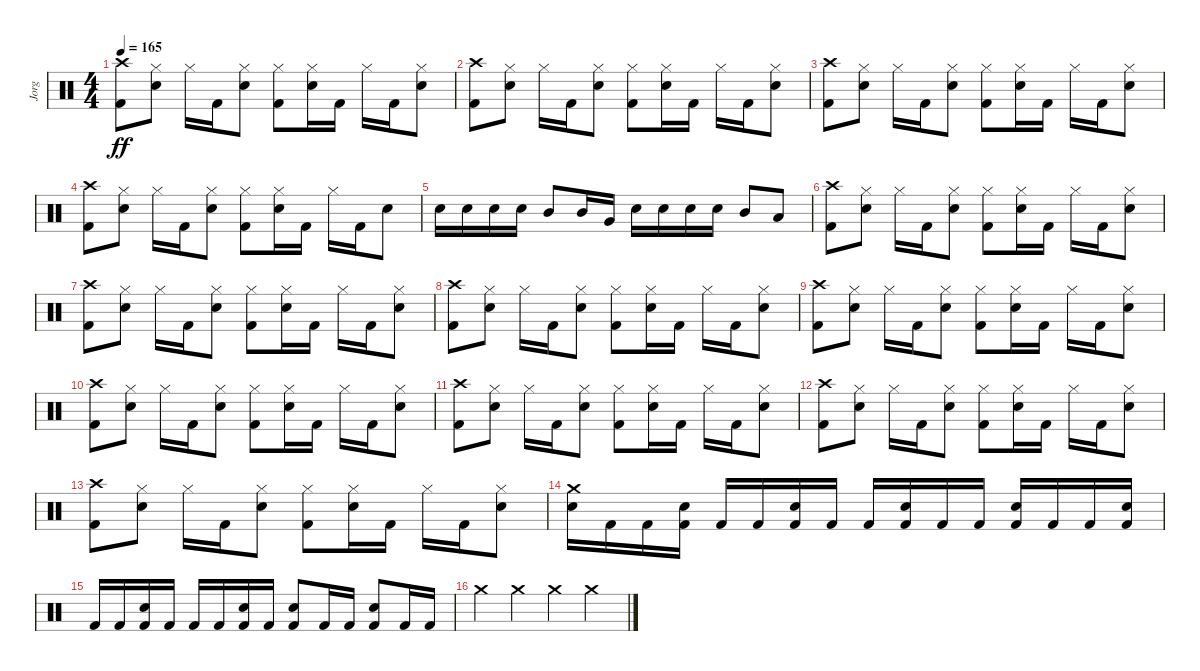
\track ("Jorg" "Jorg") {instrument percussion}
\staff {score}
\articulation defaults
\ts (4 4)
\tempo 165
\clef neutral
\ks c
("Kick (hit) 2" "Crash high (hit)").8{dy ff} ("Snare (hit) 2" "Hi-Hat (closed)").8 "Hi-Hat (closed)".16 "Kick (hit) 2".16 ("Snare (hit) 2" "Hi-Hat (closed)").8 ("Kick (hit) 2" "Hi-Hat (closed)").8 ("Snare (hit) 2" "Hi-Hat (closed)").16 "Kick (hit) 2".16 "Hi-Hat (closed)".16 "Kick (hit) 2".16 ("Snare (hit) 2" "Hi-Hat (closed)").8 |
("Kick (hit) 2" "Crash high (hit)").8 ("Snare (hit) 2" "Hi-Hat (closed)").8 "Hi-Hat (closed)".16 "Kick (hit) 2".16 ("Snare (hit) 2" "Hi-Hat (closed)").8 ("Kick (hit) 2" "Hi-Hat (closed)").8 ("Snare (hit) 2" "Hi-Hat (closed)").16 "Kick (hit) 2".16 "Hi-Hat (closed)".16 "Kick (hit) 2".16 ("Snare (hit) 2" "Hi-Hat (closed)").8 |
("Kick (hit) 2" "Crash high (hit)").8 ("Snare (hit) 2" "Hi-Hat (closed)").8 "Hi-Hat (closed)".16 "Kick (hit) 2".16 ("Snare (hit) 2" "Hi-Hat (closed)").8 ("Kick (hit) 2" "Hi-Hat (closed)").8 ("Snare (hit) 2" "Hi-Hat (closed)").16 "Kick (hit) 2".16 "Hi-Hat (closed)".16 "Kick (hit) 2".16 ("Snare (hit) 2" "Hi-Hat (closed)").8 |
("Kick (hit) 2" "Crash high (hit)").8 ("Snare (hit) 2" "Hi-Hat (closed)").8 "Hi-Hat (closed)".16 "Kick (hit) 2".16 ("Snare (hit) 2" "Hi-Hat (closed)").8 ("Kick (hit) 2" "Hi-Hat (closed)").8 ("Snare (hit) 2" "Hi-Hat (closed)").16 "Kick (hit) 2".16 "Hi-Hat (closed)".16 "Kick (hit) 2".16 "Snare (hit) 2".8 |
"Electric Snare (hit)".16 "Electric Snare (hit)".16 "Electric Snare (hit)".16 "Electric Snare (hit)".16 "Mid Tom (hit)".8 "Mid Tom (hit)".16 "Very Low Tom (hit)".16 "Electric Snare (hit)".16 "Electric Snare (hit)".16 "Electric Snare (hit)".16 "Electric Snare (hit)".16 "Mid Tom (hit)".8 "Low Tom (hit)".8 |
("Kick (hit) 2" "Crash high (hit)").8 ("Snare (hit) 2" "Hi-Hat (closed)").8 "Hi-Hat (closed)".16 "Kick (hit) 2".16 ("Snare (hit) 2" "Hi-Hat (closed)").8 ("Kick (hit) 2" "Hi-Hat (closed)").8 ("Snare (hit) 2" "Hi-Hat (closed)").16 "Kick (hit) 2".16 "Hi-Hat (closed)".16 "Kick (hit) 2".16 ("Snare (hit) 2" "Hi-Hat (closed)").8 |
("Kick (hit) 2" "Crash high (hit)").8 ("Snare (hit) 2" "Hi-Hat (closed)").8 "Hi-Hat (closed)".16 "Kick (hit) 2".16 ("Snare (hit) 2" "Hi-Hat (closed)").8 ("Kick (hit) 2" "Hi-Hat (closed)").8 ("Snare (hit) 2" "Hi-Hat (closed)").16 "Kick (hit) 2".16 "Hi-Hat (closed)".16 "Kick (hit) 2".16 ("Snare (hit) 2" "Hi-Hat (closed)").8 |
("Kick (hit) 2" "Crash high (hit)").8 ("Snare (hit) 2" "Hi-Hat (closed)").8 "Hi-Hat (closed)".16 "Kick (hit) 2".16 ("Snare (hit) 2" "Hi-Hat (closed)").8 ("Kick (hit) 2" "Hi-Hat (closed)").8 ("Snare (hit) 2" "Hi-Hat (closed)").16 "Kick (hit) 2".16 "Hi-Hat (closed)".16 "Kick (hit) 2".16 ("Snare (hit) 2" "Hi-Hat (closed)").8 |
("Kick (hit) 2" "Crash high (hit)").8 ("Snare (hit) 2" "Hi-Hat (closed)").8 "Hi-Hat (closed)".16 "Kick (hit) 2".16 ("Snare (hit) 2" "Hi-Hat (closed)").8 ("Kick (hit) 2" "Hi-Hat (closed)").8 ("Snare (hit) 2" "Hi-Hat (closed)").16 "Kick (hit) 2".16 "Hi-Hat (closed)".16 "Kick (hit) 2".16 ("Snare (hit) 2" "Hi-Hat (closed)").8 |
("Kick (hit) 2" "Crash high (hit)").8 ("Snare (hit) 2" "Hi-Hat (closed)").8 "Hi-Hat (closed)".16 "Kick (hit) 2".16 ("Snare (hit) 2" "Hi-Hat (closed)").8 ("Kick (hit) 2" "Hi-Hat (closed)").8 ("Snare (hit) 2" "Hi-Hat (closed)").16 "Kick (hit) 2".16 "Hi-Hat (closed)".16 "Kick (hit) 2".16 ("Snare (hit) 2" "Hi-Hat (closed)").8 |
("Kick (hit) 2" "Crash high (hit)").8 ("Snare (hit) 2" "Hi-Hat (closed)").8 "Hi-Hat (closed)".16 "Kick (hit) 2".16 ("Snare (hit) 2" "Hi-Hat (closed)").8 ("Kick (hit) 2" "Hi-Hat (closed)").8 ("Snare (hit) 2" "Hi-Hat (closed)").16 "Kick (hit) 2".16 "Hi-Hat (closed)".16 "Kick (hit) 2".16 ("Snare (hit) 2" "Hi-Hat (closed)").8 |
("Kick (hit) 2" "Crash high (hit)").8 ("Snare (hit) 2" "Hi-Hat (closed)").8 "Hi-Hat (closed)".16 "Kick (hit) 2".16 ("Snare (hit) 2" "Hi-Hat (closed)").8 ("Kick (hit) 2" "Hi-Hat (closed)").8 ("Snare (hit) 2" "Hi-Hat (closed)").16 "Kick (hit) 2".16 "Hi-Hat (closed)".16 "Kick (hit) 2".16 ("Snare (hit) 2" "Hi-Hat (closed)").8 |
("Kick (hit) 2" "Crash high (hit)").8 ("Snare (hit) 2" "Hi-Hat (closed)").8 "Hi-Hat (closed)".16 "Kick (hit) 2".16 ("Snare (hit) 2" "Hi-Hat (closed)").8 ("Kick (hit) 2" "Hi-Hat (closed)").8 ("Snare (hit) 2" "Hi-Hat (closed)").16 "Kick (hit) 2".16 "Hi-Hat (closed)".16 "Kick (hit) 2".16 ("Snare (hit) 2" "Hi-Hat (closed)").8 |
("Crash medium (hit)" "Electric Snare (hit)").16 "Kick (hit) 2".16 "Kick (hit) 2".16 ("Electric Snare (hit)" "Kick (hit) 2").16 "Kick (hit) 2".16 "Kick (hit) 2".16 ("Electric Snare (hit)" "Kick (hit) 2").16 "Kick (hit) 2".16 "Kick (hit) 2".16 ("Electric Snare (hit)" "Kick (hit) 2").16 "Kick (hit) 2".16 "Kick (hit) 2".16 ("Electric Snare (hit)" "Kick (hit) 2").16 "Kick (hit) 2".16 "Kick (hit) 2".16 ("Electric Snare (hit)" "Kick (hit) 2").16 |
"Kick (hit) 2".16 "Kick (hit) 2".16 ("Electric Snare (hit)" "Kick (hit) 2").16 "Kick (hit) 2".16 "Kick (hit) 2".16 "Kick (hit) 2".16 ("Electric Snare (hit)" "Kick (hit) 2").16 "Kick (hit) 2".16 ("Electric Snare (hit)" "Kick (hit) 2").8 "Kick (hit) 2".16 "Kick (hit) 2".16 ("Electric Snare (hit)" "Kick (hit) 2").8 "Kick (hit) 2".16 "Kick (hit) 2".16 |
"Crash medium (hit)".4 "Crash medium (hit)".4 "Crash medium (hit)".4 "Crash medium (hit)".4
